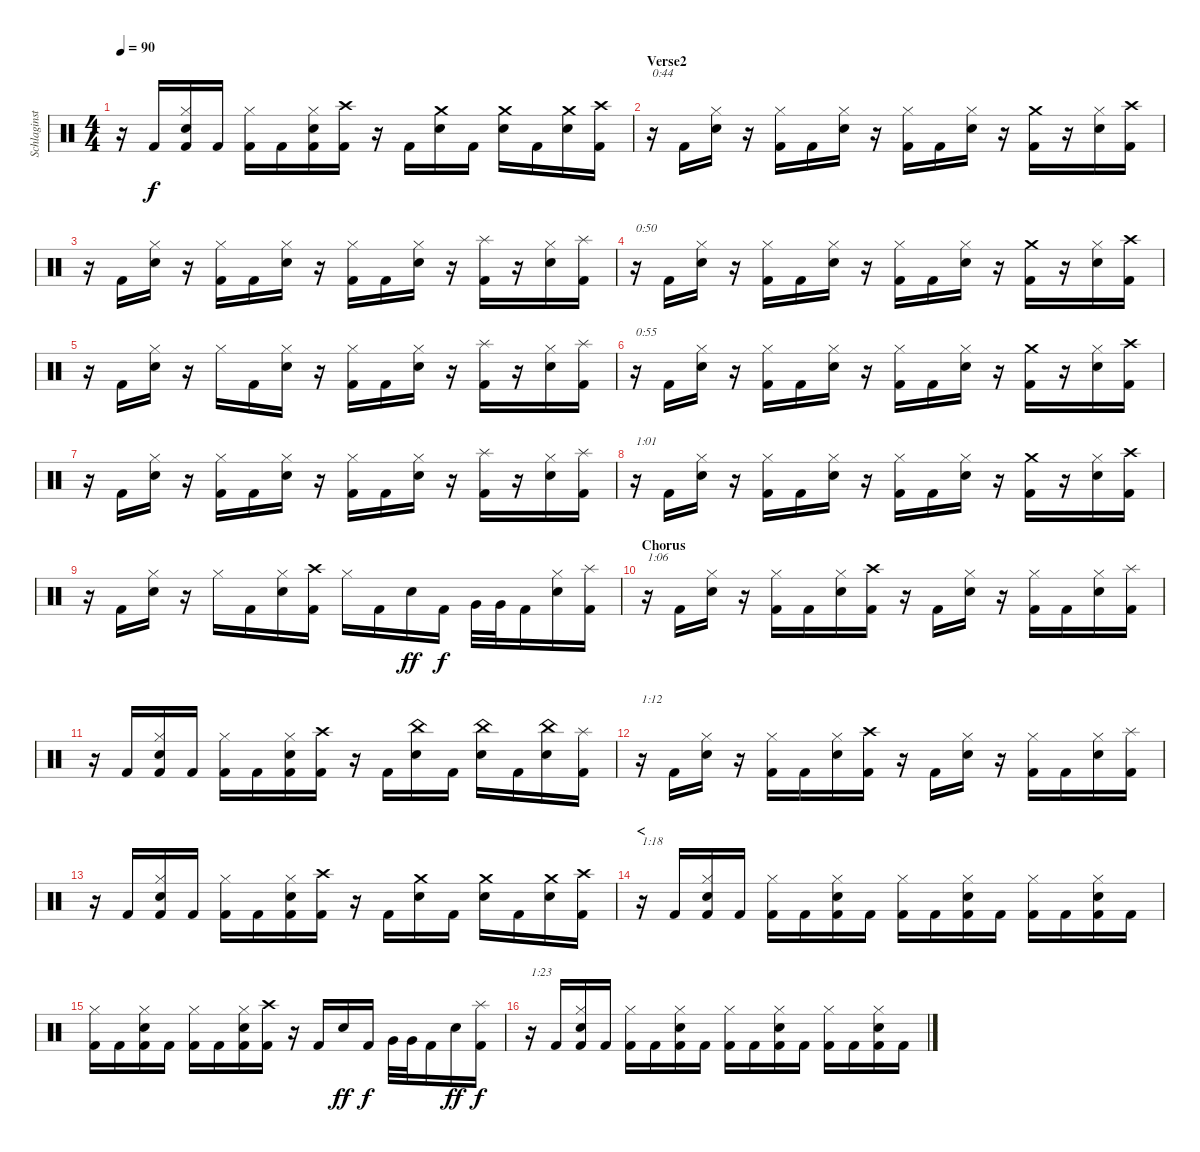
\track ("Schlaginstrumente - Auswahl" "Schlaginst") {instrument percussion}
\staff {score}
\articulation defaults
\ts (4 4)
\tempo 90
\clef neutral
\ks c
r.16{dy f} "Kick (hit) 2".16 ("Hi-Hat (closed)" "Electric Snare (hit)" "Kick (hit) 2").16 "Kick (hit) 2".16 ("Hi-Hat (closed)" "Kick (hit) 2").16 "Kick (hit) 2".16 ("Hi-Hat (closed)" "Electric Snare (hit)" "Kick (hit) 2").16 ("Crash high (hit)" "Kick (hit) 2").16 r.16 "Kick (hit) 2".16 ("Crash medium (hit)" "Electric Snare (hit)").16 "Kick (hit) 2".16 ("Crash medium (hit)" "Electric Snare (hit)").16 "Kick (hit) 2".16 ("Crash medium (hit)" "Electric Snare (hit)").16 ("Crash high (hit)" "Kick (hit) 2").16 |
\section ("" "Verse2")
r.16{txt "0:44"} "Kick (hit) 2".16 ("Hi-Hat (closed)" "Electric Snare (hit)").16 r.16 ("Hi-Hat (closed)" "Kick (hit) 2").16 "Kick (hit) 2".16 ("Hi-Hat (closed)" "Electric Snare (hit)").16 r.16 ("Hi-Hat (closed)" "Kick (hit) 2").16 "Kick (hit) 2".16 ("Hi-Hat (closed)" "Electric Snare (hit)").16 r.16 ("Crash medium (hit)" "Kick (hit) 2").16 r.16 ("Hi-Hat (closed)" "Electric Snare (hit)").16 ("Crash high (hit)" "Kick (hit) 2").16 |
r.16 "Kick (hit) 2".16 ("Hi-Hat (closed)" "Electric Snare (hit)").16 r.16 ("Hi-Hat (closed)" "Kick (hit) 2").16 "Kick (hit) 2".16 ("Hi-Hat (closed)" "Electric Snare (hit)").16 r.16 ("Hi-Hat (closed)" "Kick (hit) 2").16 "Kick (hit) 2".16 ("Hi-Hat (closed)" "Electric Snare (hit)").16 r.16 ("Splash (hit)" "Kick (hit) 2").16 r.16 ("Hi-Hat (closed)" "Electric Snare (hit)").16 ("Splash (hit)" "Kick (hit) 2").16 |
r.16{txt "0:50"} "Kick (hit) 2".16 ("Hi-Hat (closed)" "Electric Snare (hit)").16 r.16 ("Hi-Hat (closed)" "Kick (hit) 2").16 "Kick (hit) 2".16 ("Hi-Hat (closed)" "Electric Snare (hit)").16 r.16 ("Hi-Hat (closed)" "Kick (hit) 2").16 "Kick (hit) 2".16 ("Hi-Hat (closed)" "Electric Snare (hit)").16 r.16 ("Crash medium (hit)" "Kick (hit) 2").16 r.16 ("Hi-Hat (closed)" "Electric Snare (hit)").16 ("Crash high (hit)" "Kick (hit) 2").16 |
r.16 "Kick (hit) 2".16 ("Hi-Hat (closed)" "Electric Snare (hit)").16 r.16 "Hi-Hat (closed)".16 "Kick (hit) 2".16 ("Hi-Hat (closed)" "Electric Snare (hit)").16 r.16 ("Hi-Hat (closed)" "Kick (hit) 2").16 "Kick (hit) 2".16 ("Hi-Hat (closed)" "Electric Snare (hit)").16 r.16 ("Splash (hit)" "Kick (hit) 2").16 r.16 ("Hi-Hat (closed)" "Electric Snare (hit)").16 ("Splash (hit)" "Kick (hit) 2").16 |
r.16{txt "0:55"} "Kick (hit) 2".16 ("Hi-Hat (closed)" "Electric Snare (hit)").16 r.16 ("Hi-Hat (closed)" "Kick (hit) 2").16 "Kick (hit) 2".16 ("Hi-Hat (closed)" "Electric Snare (hit)").16 r.16 ("Hi-Hat (closed)" "Kick (hit) 2").16 "Kick (hit) 2".16 ("Hi-Hat (closed)" "Electric Snare (hit)").16 r.16 ("Crash medium (hit)" "Kick (hit) 2").16 r.16 ("Hi-Hat (closed)" "Electric Snare (hit)").16 ("Crash high (hit)" "Kick (hit) 2").16 |
r.16 "Kick (hit) 2".16 ("Hi-Hat (closed)" "Electric Snare (hit)").16 r.16 ("Hi-Hat (closed)" "Kick (hit) 2").16 "Kick (hit) 2".16 ("Hi-Hat (closed)" "Electric Snare (hit)").16 r.16 ("Hi-Hat (closed)" "Kick (hit) 2").16 "Kick (hit) 2".16 ("Hi-Hat (closed)" "Electric Snare (hit)").16 r.16 ("Splash (hit)" "Kick (hit) 2").16 r.16 ("Hi-Hat (closed)" "Electric Snare (hit)").16 ("Splash (hit)" "Kick (hit) 2").16 |
r.16{txt "1:01"} "Kick (hit) 2".16 ("Hi-Hat (closed)" "Electric Snare (hit)").16 r.16 ("Hi-Hat (closed)" "Kick (hit) 2").16 "Kick (hit) 2".16 ("Hi-Hat (closed)" "Electric Snare (hit)").16 r.16 ("Hi-Hat (closed)" "Kick (hit) 2").16 "Kick (hit) 2".16 ("Hi-Hat (closed)" "Electric Snare (hit)").16 r.16 ("Crash medium (hit)" "Kick (hit) 2").16 r.16 ("Hi-Hat (closed)" "Electric Snare (hit)").16 ("Crash high (hit)" "Kick (hit) 2").16 |
r.16 "Kick (hit) 2".16 ("Hi-Hat (closed)" "Electric Snare (hit)").16 r.16 "Hi-Hat (closed)".16 "Kick (hit) 2".16 ("Hi-Hat (closed)" "Electric Snare (hit)").16 ("Crash high (hit)" "Kick (hit) 2").16 "Hi-Hat (closed)".16 "Kick (hit) 2".16 "Electric Snare (hit)".16{dy ff} "Kick (hit) 2".16{dy f} "Very Low Tom (hit)".32 "Very Low Tom (hit)".32 "Kick (hit) 2".16 ("Hi-Hat (closed)" "Electric Snare (hit)").16 ("Splash (hit)" "Kick (hit) 2").16 |
\section ("" "Chorus")
r.16{txt "1:06"} "Kick (hit) 2".16 ("Hi-Hat (closed)" "Electric Snare (hit)").16 r.16 ("Hi-Hat (closed)" "Kick (hit) 2").16 "Kick (hit) 2".16 ("Hi-Hat (closed)" "Electric Snare (hit)").16 ("Crash high (hit)" "Kick (hit) 2").16 r.16 "Kick (hit) 2".16 ("Hi-Hat (closed)" "Electric Snare (hit)").16 r.16 ("Hi-Hat (closed)" "Kick (hit) 2").16 "Kick (hit) 2".16 ("Hi-Hat (closed)" "Electric Snare (hit)").16 ("Splash (hit)" "Kick (hit) 2").16 |
r.16 "Kick (hit) 2".16 ("Hi-Hat (closed)" "Electric Snare (hit)" "Kick (hit) 2").16 "Kick (hit) 2".16 ("Hi-Hat (closed)" "Kick (hit) 2").16 "Kick (hit) 2".16 ("Hi-Hat (closed)" "Electric Snare (hit)" "Kick (hit) 2").16 ("Crash high (hit)" "Kick (hit) 2").16 r.16 "Kick (hit) 2".16 ("China (hit)" "Electric Snare (hit)").16 "Kick (hit) 2".16 ("China (hit)" "Electric Snare (hit)").16 "Kick (hit) 2".16 ("China (hit)" "Electric Snare (hit)").16 ("Splash (hit)" "Kick (hit) 2").16 |
r.16{txt "1:12"} "Kick (hit) 2".16 ("Hi-Hat (closed)" "Electric Snare (hit)").16 r.16 ("Hi-Hat (closed)" "Kick (hit) 2").16 "Kick (hit) 2".16 ("Hi-Hat (closed)" "Electric Snare (hit)").16 ("Crash high (hit)" "Kick (hit) 2").16 r.16 "Kick (hit) 2".16 ("Hi-Hat (closed)" "Electric Snare (hit)").16 r.16 ("Hi-Hat (closed)" "Kick (hit) 2").16 "Kick (hit) 2".16 ("Hi-Hat (closed)" "Electric Snare (hit)").16 ("Splash (hit)" "Kick (hit) 2").16 |
r.16 "Kick (hit) 2".16 ("Hi-Hat (closed)" "Electric Snare (hit)" "Kick (hit) 2").16 "Kick (hit) 2".16 ("Hi-Hat (closed)" "Kick (hit) 2").16 "Kick (hit) 2".16 ("Hi-Hat (closed)" "Electric Snare (hit)" "Kick (hit) 2").16 ("Crash high (hit)" "Kick (hit) 2").16 r.16 "Kick (hit) 2".16 ("Crash medium (hit)" "Electric Snare (hit)").16 "Kick (hit) 2".16 ("Crash medium (hit)" "Electric Snare (hit)").16 "Kick (hit) 2".16 ("Crash medium (hit)" "Electric Snare (hit)").16 ("Crash high (hit)" "Kick (hit) 2").16 |
\section ("" "<")
r.16{txt "1:18"} "Kick (hit) 2".16 ("Hi-Hat (closed)" "Electric Snare (hit)" "Kick (hit) 2").16 "Kick (hit) 2".16 ("Hi-Hat (closed)" "Kick (hit) 2").16 "Kick (hit) 2".16 ("Hi-Hat (closed)" "Electric Snare (hit)" "Kick (hit) 2").16 "Kick (hit) 2".16 ("Hi-Hat (closed)" "Kick (hit) 2").16 "Kick (hit) 2".16 ("Hi-Hat (closed)" "Electric Snare (hit)" "Kick (hit) 2").16 "Kick (hit) 2".16 ("Hi-Hat (closed)" "Kick (hit) 2").16 "Kick (hit) 2".16 ("Hi-Hat (closed)" "Electric Snare (hit)" "Kick (hit) 2").16 "Kick (hit) 2".16 |
("Hi-Hat (closed)" "Kick (hit) 2").16 "Kick (hit) 2".16 ("Hi-Hat (closed)" "Electric Snare (hit)" "Kick (hit) 2").16 "Kick (hit) 2".16 ("Hi-Hat (closed)" "Kick (hit) 2").16 "Kick (hit) 2".16 ("Hi-Hat (closed)" "Electric Snare (hit)" "Kick (hit) 2").16 ("Crash high (hit)" "Kick (hit) 2").16 r.16 "Kick (hit) 2".16 "Electric Snare (hit)".16{dy ff} "Kick (hit) 2".16{dy f} "Very Low Tom (hit)".32 "Very Low Tom (hit)".32 "Kick (hit) 2".16 "Electric Snare (hit)".16{dy ff} ("Splash (hit)" "Kick (hit) 2").16{dy f} |
r.16{txt "1:23"} "Kick (hit) 2".16 ("Hi-Hat (closed)" "Electric Snare (hit)" "Kick (hit) 2").16 "Kick (hit) 2".16 ("Hi-Hat (closed)" "Kick (hit) 2").16 "Kick (hit) 2".16 ("Hi-Hat (closed)" "Electric Snare (hit)" "Kick (hit) 2").16 "Kick (hit) 2".16 ("Hi-Hat (closed)" "Kick (hit) 2").16 "Kick (hit) 2".16 ("Hi-Hat (closed)" "Electric Snare (hit)" "Kick (hit) 2").16 "Kick (hit) 2".16 ("Hi-Hat (closed)" "Kick (hit) 2").16 "Kick (hit) 2".16 ("Hi-Hat (closed)" "Electric Snare (hit)" "Kick (hit) 2").16 "Kick (hit) 2".16
